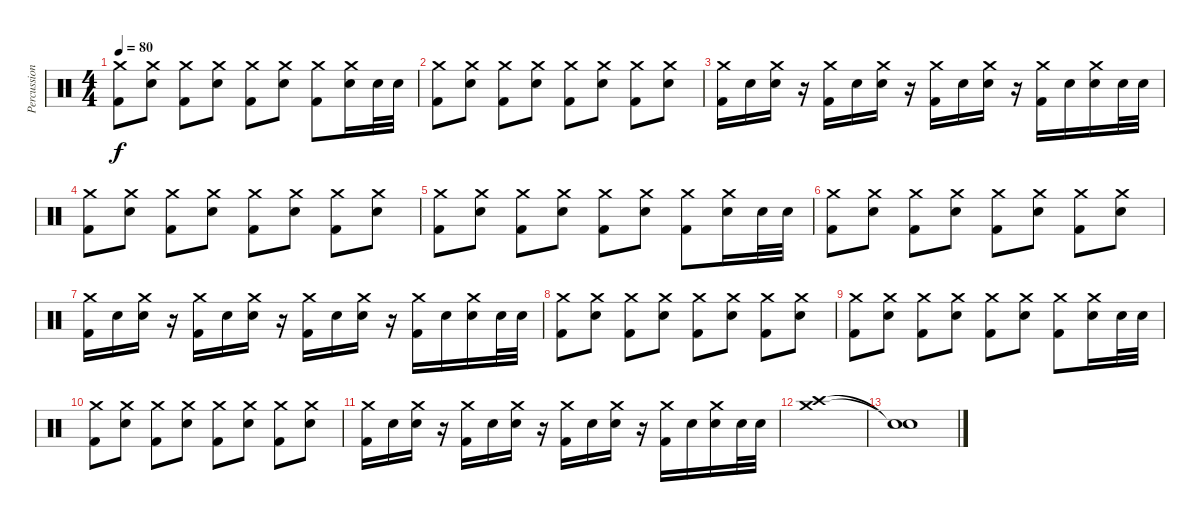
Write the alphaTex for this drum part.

\track ("Percussions" "Percussion") {instrument percussion}
\staff {score}
\articulation defaults
\ts (4 4)
\tempo 80
\clef neutral
\ks c
("Crash medium (hit)" "Kick (hit) 2").8{dy f} ("Crash medium (hit)" "Electric Snare (hit)").8 ("Crash medium (hit)" "Kick (hit) 2").8 ("Crash medium (hit)" "Electric Snare (hit)").8 ("Crash medium (hit)" "Kick (hit) 2").8 ("Crash medium (hit)" "Electric Snare (hit)").8 ("Crash medium (hit)" "Kick (hit) 2").8 ("Crash medium (hit)" "Electric Snare (hit)").16 "Electric Snare (hit)".32 "Electric Snare (hit)".32 |
("Crash medium (hit)" "Kick (hit) 2").8 ("Crash medium (hit)" "Electric Snare (hit)").8 ("Crash medium (hit)" "Kick (hit) 2").8 ("Crash medium (hit)" "Electric Snare (hit)").8 ("Crash medium (hit)" "Kick (hit) 2").8 ("Crash medium (hit)" "Electric Snare (hit)").8 ("Crash medium (hit)" "Kick (hit) 2").8 ("Crash medium (hit)" "Electric Snare (hit)").8 |
("Crash medium (hit)" "Kick (hit) 2").16 "Electric Snare (hit)".16 ("Crash medium (hit)" "Electric Snare (hit)").16 r.16 ("Crash medium (hit)" "Kick (hit) 2").16 "Electric Snare (hit)".16 ("Crash medium (hit)" "Electric Snare (hit)").16 r.16 ("Crash medium (hit)" "Kick (hit) 2").16 "Electric Snare (hit)".16 ("Crash medium (hit)" "Electric Snare (hit)").16 r.16 ("Crash medium (hit)" "Kick (hit) 2").16 "Electric Snare (hit)".16 ("Crash medium (hit)" "Electric Snare (hit)").16 "Electric Snare (hit)".32 "Electric Snare (hit)".32 |
("Crash medium (hit)" "Kick (hit) 2").8 ("Crash medium (hit)" "Electric Snare (hit)").8 ("Crash medium (hit)" "Kick (hit) 2").8 ("Crash medium (hit)" "Electric Snare (hit)").8 ("Crash medium (hit)" "Kick (hit) 2").8 ("Crash medium (hit)" "Electric Snare (hit)").8 ("Crash medium (hit)" "Kick (hit) 2").8 ("Crash medium (hit)" "Electric Snare (hit)").8 |
("Crash medium (hit)" "Kick (hit) 2").8 ("Crash medium (hit)" "Electric Snare (hit)").8 ("Crash medium (hit)" "Kick (hit) 2").8 ("Crash medium (hit)" "Electric Snare (hit)").8 ("Crash medium (hit)" "Kick (hit) 2").8 ("Crash medium (hit)" "Electric Snare (hit)").8 ("Crash medium (hit)" "Kick (hit) 2").8 ("Crash medium (hit)" "Electric Snare (hit)").16 "Electric Snare (hit)".32 "Electric Snare (hit)".32 |
("Crash medium (hit)" "Kick (hit) 2").8 ("Crash medium (hit)" "Electric Snare (hit)").8 ("Crash medium (hit)" "Kick (hit) 2").8 ("Crash medium (hit)" "Electric Snare (hit)").8 ("Crash medium (hit)" "Kick (hit) 2").8 ("Crash medium (hit)" "Electric Snare (hit)").8 ("Crash medium (hit)" "Kick (hit) 2").8 ("Crash medium (hit)" "Electric Snare (hit)").8 |
("Crash medium (hit)" "Kick (hit) 2").16 "Electric Snare (hit)".16 ("Crash medium (hit)" "Electric Snare (hit)").16 r.16 ("Crash medium (hit)" "Kick (hit) 2").16 "Electric Snare (hit)".16 ("Crash medium (hit)" "Electric Snare (hit)").16 r.16 ("Crash medium (hit)" "Kick (hit) 2").16 "Electric Snare (hit)".16 ("Crash medium (hit)" "Electric Snare (hit)").16 r.16 ("Crash medium (hit)" "Kick (hit) 2").16 "Electric Snare (hit)".16 ("Crash medium (hit)" "Electric Snare (hit)").16 "Electric Snare (hit)".32 "Electric Snare (hit)".32 |
("Crash medium (hit)" "Kick (hit) 2").8 ("Crash medium (hit)" "Electric Snare (hit)").8 ("Crash medium (hit)" "Kick (hit) 2").8 ("Crash medium (hit)" "Electric Snare (hit)").8 ("Crash medium (hit)" "Kick (hit) 2").8 ("Crash medium (hit)" "Electric Snare (hit)").8 ("Crash medium (hit)" "Kick (hit) 2").8 ("Crash medium (hit)" "Electric Snare (hit)").8 |
("Crash medium (hit)" "Kick (hit) 2").8 ("Crash medium (hit)" "Electric Snare (hit)").8 ("Crash medium (hit)" "Kick (hit) 2").8 ("Crash medium (hit)" "Electric Snare (hit)").8 ("Crash medium (hit)" "Kick (hit) 2").8 ("Crash medium (hit)" "Electric Snare (hit)").8 ("Crash medium (hit)" "Kick (hit) 2").8 ("Crash medium (hit)" "Electric Snare (hit)").16 "Electric Snare (hit)".32 "Electric Snare (hit)".32 |
("Crash medium (hit)" "Kick (hit) 2").8 ("Crash medium (hit)" "Electric Snare (hit)").8 ("Crash medium (hit)" "Kick (hit) 2").8 ("Crash medium (hit)" "Electric Snare (hit)").8 ("Crash medium (hit)" "Kick (hit) 2").8 ("Crash medium (hit)" "Electric Snare (hit)").8 ("Crash medium (hit)" "Kick (hit) 2").8 ("Crash medium (hit)" "Electric Snare (hit)").8 |
("Crash medium (hit)" "Kick (hit) 2").16 "Electric Snare (hit)".16 ("Crash medium (hit)" "Electric Snare (hit)").16 r.16 ("Crash medium (hit)" "Kick (hit) 2").16 "Electric Snare (hit)".16 ("Crash medium (hit)" "Electric Snare (hit)").16 r.16 ("Crash medium (hit)" "Kick (hit) 2").16 "Electric Snare (hit)".16 ("Crash medium (hit)" "Electric Snare (hit)").16 r.16 ("Crash medium (hit)" "Kick (hit) 2").16 "Electric Snare (hit)".16 ("Crash medium (hit)" "Electric Snare (hit)").16 "Electric Snare (hit)".32 "Electric Snare (hit)".32 |
("Crash high (hit)" "Crash medium (hit)").1 |
("Snare (hit)"{t} "Snare (hit)"{t}).1
